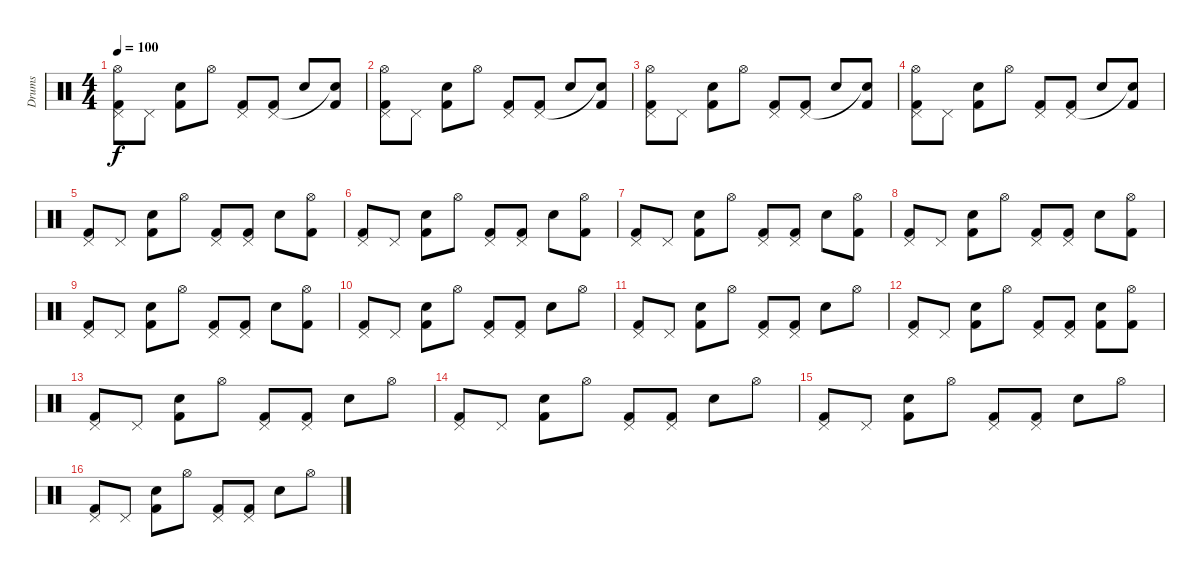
\track ("Drums" "Drums") {instrument percussion}
\staff {score}
\articulation defaults
\ts (4 4)
\tempo 100
\clef neutral
\ks c
("Kick (hit) 2" "Pedal Hi-Hat (hit)" "Hi-Hat (open)").8{dy f} "Pedal Hi-Hat (hit)".8 ("Kick (hit) 2" "Electric Snare (hit)").8 "Hi-Hat (open)".8 ("Kick (hit) 2" "Pedal Hi-Hat (hit)").8 ("Kick (hit) 2" "Pedal Hi-Hat (hit)").8 "Electric Snare (hit)".8 ("Kick (hit) 2" "Snare (hit)"{t}).8 |
("Kick (hit) 2" "Pedal Hi-Hat (hit)" "Hi-Hat (open)").8 "Pedal Hi-Hat (hit)".8 ("Kick (hit) 2" "Electric Snare (hit)").8 "Hi-Hat (open)".8 ("Kick (hit) 2" "Pedal Hi-Hat (hit)").8 ("Kick (hit) 2" "Pedal Hi-Hat (hit)").8 "Electric Snare (hit)".8 ("Kick (hit) 2" "Snare (hit)"{t}).8 |
("Kick (hit) 2" "Pedal Hi-Hat (hit)" "Hi-Hat (open)").8 "Pedal Hi-Hat (hit)".8 ("Kick (hit) 2" "Electric Snare (hit)").8 "Hi-Hat (open)".8 ("Kick (hit) 2" "Pedal Hi-Hat (hit)").8 ("Kick (hit) 2" "Pedal Hi-Hat (hit)").8 "Electric Snare (hit)".8 ("Kick (hit) 2" "Snare (hit)"{t}).8 |
("Kick (hit) 2" "Pedal Hi-Hat (hit)" "Hi-Hat (open)").8 "Pedal Hi-Hat (hit)".8 ("Kick (hit) 2" "Electric Snare (hit)").8 "Hi-Hat (open)".8 ("Kick (hit) 2" "Pedal Hi-Hat (hit)").8 ("Kick (hit) 2" "Pedal Hi-Hat (hit)").8 "Electric Snare (hit)".8 ("Kick (hit) 2" "Snare (hit)"{t}).8 |
("Kick (hit) 2" "Pedal Hi-Hat (hit)").8 "Pedal Hi-Hat (hit)".8 ("Kick (hit) 2" "Electric Snare (hit)").8 "Hi-Hat (open)".8 ("Kick (hit) 2" "Pedal Hi-Hat (hit)").8 ("Kick (hit) 2" "Pedal Hi-Hat (hit)").8 "Electric Snare (hit)".8 ("Kick (hit) 2" "Hi-Hat (open)").8 |
("Kick (hit) 2" "Pedal Hi-Hat (hit)").8 "Pedal Hi-Hat (hit)".8 ("Kick (hit) 2" "Electric Snare (hit)").8 "Hi-Hat (open)".8 ("Kick (hit) 2" "Pedal Hi-Hat (hit)").8 ("Kick (hit) 2" "Pedal Hi-Hat (hit)").8 "Electric Snare (hit)".8 ("Kick (hit) 2" "Hi-Hat (open)").8 |
("Kick (hit) 2" "Pedal Hi-Hat (hit)").8 "Pedal Hi-Hat (hit)".8 ("Kick (hit) 2" "Electric Snare (hit)").8 "Hi-Hat (open)".8 ("Kick (hit) 2" "Pedal Hi-Hat (hit)").8 ("Kick (hit) 2" "Pedal Hi-Hat (hit)").8 "Electric Snare (hit)".8 ("Kick (hit) 2" "Hi-Hat (open)").8 |
("Kick (hit) 2" "Pedal Hi-Hat (hit)").8 "Pedal Hi-Hat (hit)".8 ("Kick (hit) 2" "Electric Snare (hit)").8 "Hi-Hat (open)".8 ("Kick (hit) 2" "Pedal Hi-Hat (hit)").8 ("Kick (hit) 2" "Pedal Hi-Hat (hit)").8 "Electric Snare (hit)".8 ("Kick (hit) 2" "Hi-Hat (open)").8 |
("Kick (hit) 2" "Pedal Hi-Hat (hit)").8 "Pedal Hi-Hat (hit)".8 ("Kick (hit) 2" "Electric Snare (hit)").8 "Hi-Hat (open)".8 ("Kick (hit) 2" "Pedal Hi-Hat (hit)").8 ("Kick (hit) 2" "Pedal Hi-Hat (hit)").8 "Electric Snare (hit)".8 ("Kick (hit) 2" "Hi-Hat (open)").8 |
("Kick (hit) 2" "Pedal Hi-Hat (hit)").8 "Pedal Hi-Hat (hit)".8 ("Kick (hit) 2" "Electric Snare (hit)").8 "Hi-Hat (open)".8 ("Kick (hit) 2" "Pedal Hi-Hat (hit)").8 ("Kick (hit) 2" "Pedal Hi-Hat (hit)").8 "Electric Snare (hit)".8 "Hi-Hat (open)".8 |
("Kick (hit) 2" "Pedal Hi-Hat (hit)").8 "Pedal Hi-Hat (hit)".8 ("Kick (hit) 2" "Electric Snare (hit)").8 "Hi-Hat (open)".8 ("Kick (hit) 2" "Pedal Hi-Hat (hit)").8 ("Kick (hit) 2" "Pedal Hi-Hat (hit)").8 "Electric Snare (hit)".8 "Hi-Hat (open)".8 |
("Kick (hit) 2" "Pedal Hi-Hat (hit)").8 "Pedal Hi-Hat (hit)".8 ("Kick (hit) 2" "Electric Snare (hit)").8 "Hi-Hat (open)".8 ("Kick (hit) 2" "Pedal Hi-Hat (hit)").8 ("Kick (hit) 2" "Pedal Hi-Hat (hit)").8 ("Kick (hit) 2" "Electric Snare (hit)").8 ("Kick (hit) 2" "Hi-Hat (open)").8 |
("Kick (hit) 2" "Pedal Hi-Hat (hit)").8 "Pedal Hi-Hat (hit)".8 ("Kick (hit) 2" "Electric Snare (hit)").8 "Hi-Hat (open)".8 ("Kick (hit) 2" "Pedal Hi-Hat (hit)").8 ("Kick (hit) 2" "Pedal Hi-Hat (hit)").8 "Electric Snare (hit)".8 "Hi-Hat (open)".8 |
("Kick (hit) 2" "Pedal Hi-Hat (hit)").8 "Pedal Hi-Hat (hit)".8 ("Kick (hit) 2" "Electric Snare (hit)").8 "Hi-Hat (open)".8 ("Kick (hit) 2" "Pedal Hi-Hat (hit)").8 ("Kick (hit) 2" "Pedal Hi-Hat (hit)").8 "Electric Snare (hit)".8 "Hi-Hat (open)".8 |
("Kick (hit) 2" "Pedal Hi-Hat (hit)").8 "Pedal Hi-Hat (hit)".8 ("Kick (hit) 2" "Electric Snare (hit)").8 "Hi-Hat (open)".8 ("Kick (hit) 2" "Pedal Hi-Hat (hit)").8 ("Kick (hit) 2" "Pedal Hi-Hat (hit)").8 "Electric Snare (hit)".8 "Hi-Hat (open)".8 |
("Kick (hit) 2" "Pedal Hi-Hat (hit)").8 "Pedal Hi-Hat (hit)".8 ("Kick (hit) 2" "Electric Snare (hit)").8 "Hi-Hat (open)".8 ("Kick (hit) 2" "Pedal Hi-Hat (hit)").8 ("Kick (hit) 2" "Pedal Hi-Hat (hit)").8 "Electric Snare (hit)".8 "Hi-Hat (open)".8
